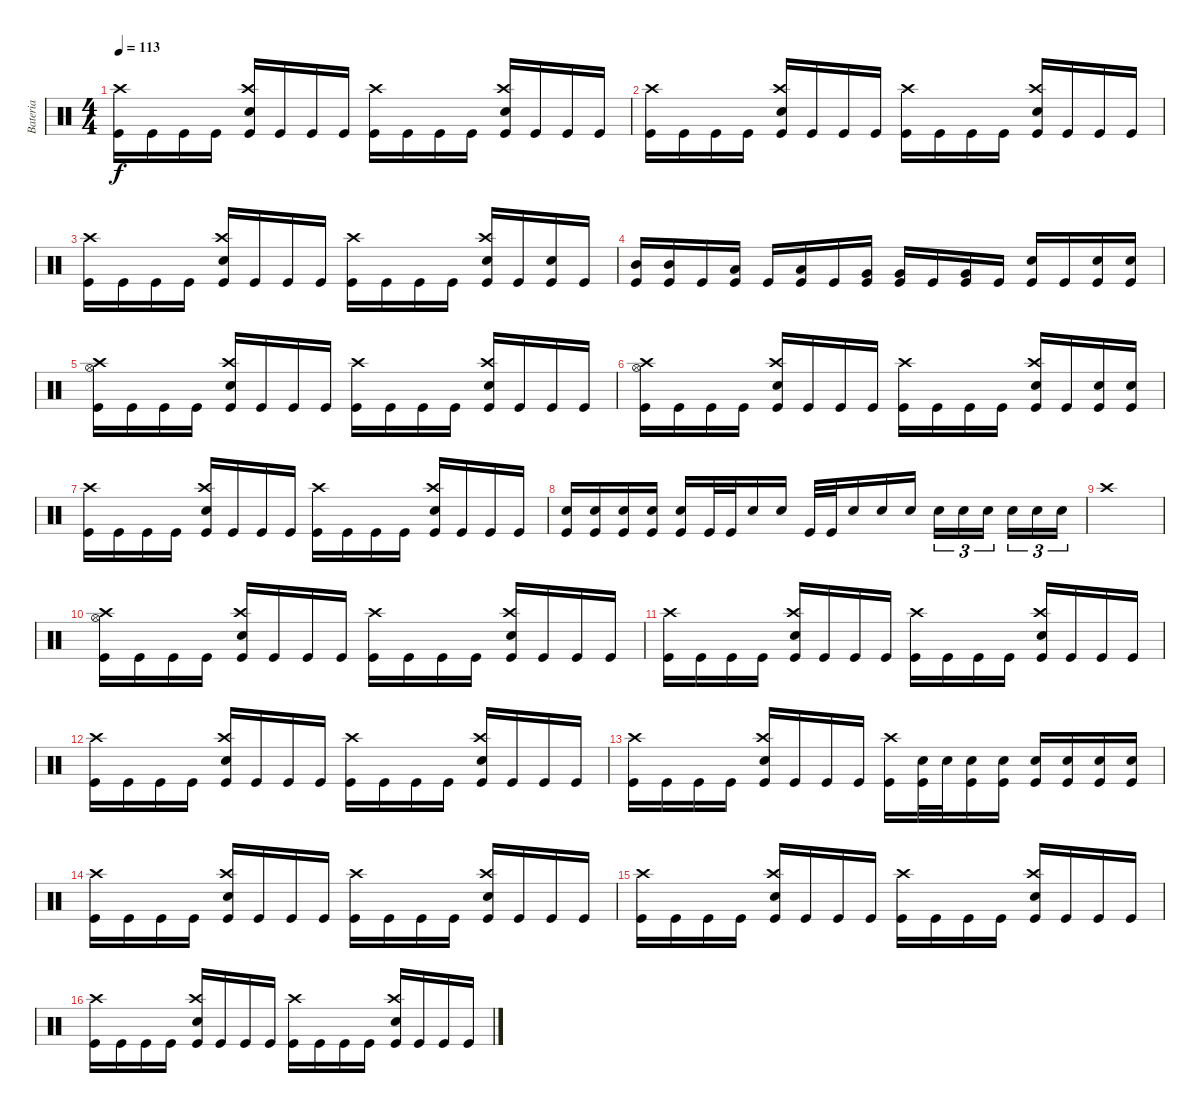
\track ("Bateria" "Bateria") {instrument percussion}
\staff {score}
\articulation defaults
\ts (4 4)
\tempo 113
\clef neutral
\ks c
("Kick (hit)" "Crash high (hit)").16{dy f} "Kick (hit)".16 "Kick (hit)".16 "Kick (hit)".16 ("Kick (hit)" "Crash high (hit)" "Snare (hit) 2").16 "Kick (hit)".16 "Kick (hit)".16 "Kick (hit)".16 ("Kick (hit)" "Crash high (hit)").16 "Kick (hit)".16 "Kick (hit)".16 "Kick (hit)".16 ("Kick (hit)" "Crash high (hit)" "Snare (hit) 2").16 "Kick (hit)".16 "Kick (hit)".16 "Kick (hit)".16 |
("Kick (hit)" "Crash high (hit)").16 "Kick (hit)".16 "Kick (hit)".16 "Kick (hit)".16 ("Kick (hit)" "Crash high (hit)" "Snare (hit) 2").16 "Kick (hit)".16 "Kick (hit)".16 "Kick (hit)".16 ("Kick (hit)" "Crash high (hit)").16 "Kick (hit)".16 "Kick (hit)".16 "Kick (hit)".16 ("Kick (hit)" "Crash high (hit)" "Snare (hit) 2").16 "Kick (hit)".16 "Kick (hit)".16 "Kick (hit)".16 |
("Kick (hit)" "Crash high (hit)").16 "Kick (hit)".16 "Kick (hit)".16 "Kick (hit)".16 ("Kick (hit)" "Crash high (hit)" "Snare (hit) 2").16 "Kick (hit)".16 "Kick (hit)".16 "Kick (hit)".16 ("Kick (hit)" "Crash high (hit)").16 "Kick (hit)".16 "Kick (hit)".16 "Kick (hit)".16 ("Kick (hit)" "Crash high (hit)" "Snare (hit) 2").16 "Kick (hit)".16 ("Kick (hit)" "Snare (hit) 2").16 "Kick (hit)".16 |
("Kick (hit)" "Mid Tom (hit)").16 ("Kick (hit)" "Mid Tom (hit)").16 "Kick (hit)".16 ("Kick (hit)" "Low Tom (hit)").16 "Kick (hit)".16 ("Kick (hit)" "Low Tom (hit)").16 "Kick (hit)".16 ("Kick (hit)" "Very Low Tom (hit)").16 ("Kick (hit)" "Very Low Tom (hit)").16 "Kick (hit)".16 ("Kick (hit)" "Very Low Tom (hit)").16 "Kick (hit)".16 ("Kick (hit)" "Snare (hit) 2").16 "Kick (hit)".16 ("Kick (hit)" "Snare (hit) 2").16 ("Kick (hit)" "Snare (hit) 2").16 |
("Kick (hit)" "Crash high (hit)" "Hi-Hat (open)").16 "Kick (hit)".16 "Kick (hit)".16 "Kick (hit)".16 ("Kick (hit)" "Crash high (hit)" "Snare (hit) 2").16 "Kick (hit)".16 "Kick (hit)".16 "Kick (hit)".16 ("Kick (hit)" "Crash high (hit)").16 "Kick (hit)".16 "Kick (hit)".16 "Kick (hit)".16 ("Kick (hit)" "Crash high (hit)" "Snare (hit) 2").16 "Kick (hit)".16 "Kick (hit)".16 "Kick (hit)".16 |
("Kick (hit)" "Crash high (hit)" "Hi-Hat (open)").16 "Kick (hit)".16 "Kick (hit)".16 "Kick (hit)".16 ("Kick (hit)" "Crash high (hit)" "Snare (hit) 2").16 "Kick (hit)".16 "Kick (hit)".16 "Kick (hit)".16 ("Kick (hit)" "Crash high (hit)").16 "Kick (hit)".16 "Kick (hit)".16 "Kick (hit)".16 ("Kick (hit)" "Crash high (hit)" "Snare (hit) 2").16 "Kick (hit)".16 ("Kick (hit)" "Snare (hit) 2").16 ("Kick (hit)" "Snare (hit) 2").16 |
("Kick (hit)" "Crash high (hit)").16 "Kick (hit)".16 "Kick (hit)".16 "Kick (hit)".16 ("Kick (hit)" "Crash high (hit)" "Snare (hit) 2").16 "Kick (hit)".16 "Kick (hit)".16 "Kick (hit)".16 ("Kick (hit)" "Crash high (hit)").16 "Kick (hit)".16 "Kick (hit)".16 "Kick (hit)".16 ("Kick (hit)" "Crash high (hit)" "Snare (hit) 2").16 "Kick (hit)".16 "Kick (hit)".16 "Kick (hit)".16 |
("Kick (hit)" "Snare (hit) 2").16 ("Kick (hit)" "Snare (hit) 2").16 ("Kick (hit)" "Snare (hit) 2").16 ("Kick (hit)" "Snare (hit) 2").16 ("Kick (hit)" "Snare (hit) 2").16 "Kick (hit)".32 "Kick (hit)".32 "Snare (hit) 2".16 "Snare (hit) 2".16 "Kick (hit)".32 "Kick (hit)".32 "Snare (hit) 2".16 "Snare (hit) 2".16 "Snare (hit) 2".16 "Snare (hit) 2".16{tu (3 2)} "Snare (hit) 2".16{tu (3 2)} "Snare (hit) 2".16{tu (3 2)} "Snare (hit) 2".16{tu (3 2)} "Snare (hit) 2".16{tu (3 2)} "Snare (hit) 2".16{tu (3 2)} |
"Crash high (hit)".1 |
("Kick (hit)" "Crash high (hit)" "Hi-Hat (open)").16 "Kick (hit)".16 "Kick (hit)".16 "Kick (hit)".16 ("Kick (hit)" "Crash high (hit)" "Snare (hit) 2").16 "Kick (hit)".16 "Kick (hit)".16 "Kick (hit)".16 ("Kick (hit)" "Crash high (hit)").16 "Kick (hit)".16 "Kick (hit)".16 "Kick (hit)".16 ("Kick (hit)" "Crash high (hit)" "Snare (hit) 2").16 "Kick (hit)".16 "Kick (hit)".16 "Kick (hit)".16 |
("Kick (hit)" "Crash high (hit)").16 "Kick (hit)".16 "Kick (hit)".16 "Kick (hit)".16 ("Kick (hit)" "Crash high (hit)" "Snare (hit) 2").16 "Kick (hit)".16 "Kick (hit)".16 "Kick (hit)".16 ("Kick (hit)" "Crash high (hit)").16 "Kick (hit)".16 "Kick (hit)".16 "Kick (hit)".16 ("Kick (hit)" "Crash high (hit)" "Snare (hit) 2").16 "Kick (hit)".16 "Kick (hit)".16 "Kick (hit)".16 |
("Kick (hit)" "Crash high (hit)").16 "Kick (hit)".16 "Kick (hit)".16 "Kick (hit)".16 ("Kick (hit)" "Crash high (hit)" "Snare (hit) 2").16 "Kick (hit)".16 "Kick (hit)".16 "Kick (hit)".16 ("Kick (hit)" "Crash high (hit)").16 "Kick (hit)".16 "Kick (hit)".16 "Kick (hit)".16 ("Kick (hit)" "Crash high (hit)" "Snare (hit) 2").16 "Kick (hit)".16 "Kick (hit)".16 "Kick (hit)".16 |
("Kick (hit)" "Crash high (hit)").16 "Kick (hit)".16 "Kick (hit)".16 "Kick (hit)".16 ("Kick (hit)" "Crash high (hit)" "Snare (hit) 2").16 "Kick (hit)".16 "Kick (hit)".16 "Kick (hit)".16 ("Kick (hit)" "Crash high (hit)").16 ("Kick (hit)" "Snare (hit) 2").32 "Snare (hit) 2".32 ("Kick (hit)" "Snare (hit) 2").16 ("Kick (hit)" "Snare (hit) 2").16 ("Kick (hit)" "Snare (hit) 2").16 ("Kick (hit)" "Snare (hit) 2").16 ("Kick (hit)" "Snare (hit) 2").16 ("Kick (hit)" "Snare (hit) 2").16 |
("Kick (hit)" "Crash high (hit)").16 "Kick (hit)".16 "Kick (hit)".16 "Kick (hit)".16 ("Kick (hit)" "Crash high (hit)" "Snare (hit) 2").16 "Kick (hit)".16 "Kick (hit)".16 "Kick (hit)".16 ("Kick (hit)" "Crash high (hit)").16 "Kick (hit)".16 "Kick (hit)".16 "Kick (hit)".16 ("Kick (hit)" "Crash high (hit)" "Snare (hit) 2").16 "Kick (hit)".16 "Kick (hit)".16 "Kick (hit)".16 |
("Kick (hit)" "Crash high (hit)").16 "Kick (hit)".16 "Kick (hit)".16 "Kick (hit)".16 ("Kick (hit)" "Crash high (hit)" "Snare (hit) 2").16 "Kick (hit)".16 "Kick (hit)".16 "Kick (hit)".16 ("Kick (hit)" "Crash high (hit)").16 "Kick (hit)".16 "Kick (hit)".16 "Kick (hit)".16 ("Kick (hit)" "Crash high (hit)" "Snare (hit) 2").16 "Kick (hit)".16 "Kick (hit)".16 "Kick (hit)".16 |
("Kick (hit)" "Crash high (hit)").16 "Kick (hit)".16 "Kick (hit)".16 "Kick (hit)".16 ("Kick (hit)" "Crash high (hit)" "Snare (hit) 2").16 "Kick (hit)".16 "Kick (hit)".16 "Kick (hit)".16 ("Kick (hit)" "Crash high (hit)").16 "Kick (hit)".16 "Kick (hit)".16 "Kick (hit)".16 ("Kick (hit)" "Crash high (hit)" "Snare (hit) 2").16 "Kick (hit)".16 "Kick (hit)".16 "Kick (hit)".16
